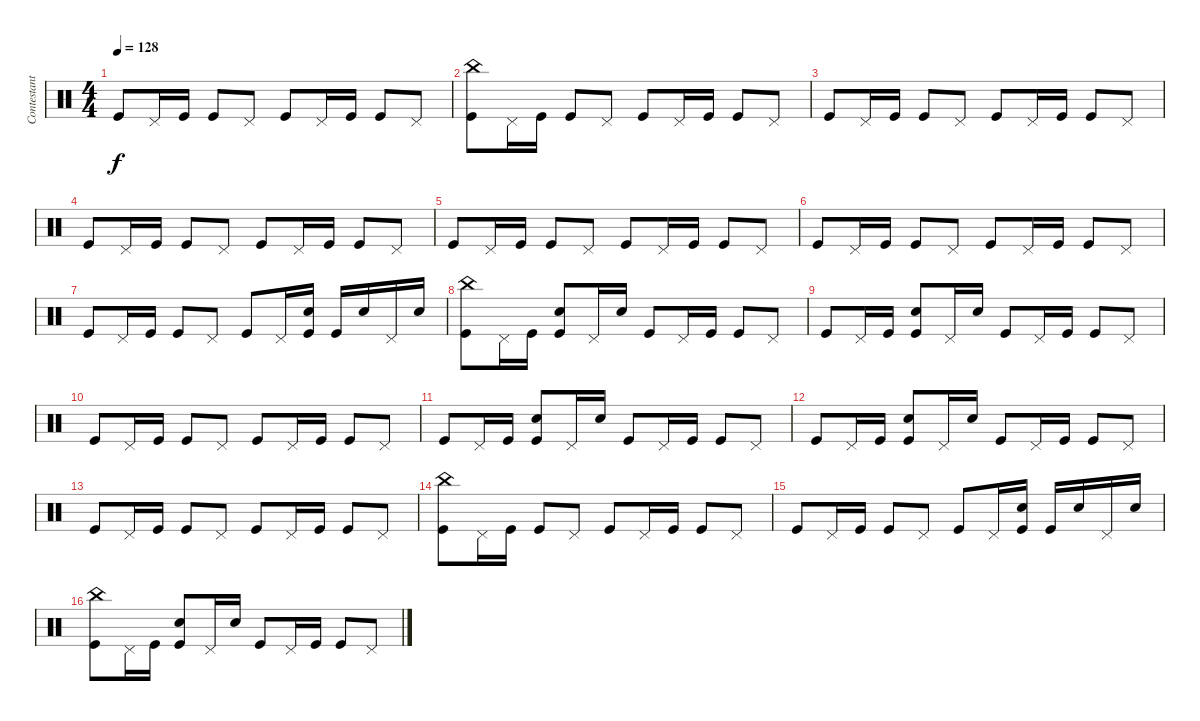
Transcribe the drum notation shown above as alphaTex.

\track ("Contestant #4" "Contestant") {instrument percussion}
\staff {score}
\articulation defaults
\ts (4 4)
\tempo 128
\clef neutral
\ks c "Kick (hit)".8{dy f} "Pedal Hi-Hat (hit)".16 "Kick (hit)".16 "Kick (hit)".8 "Pedal Hi-Hat (hit)".8 "Kick (hit)".8 "Pedal Hi-Hat (hit)".16 "Kick (hit)".16 "Kick (hit)".8 "Pedal Hi-Hat (hit)".8
|
("China (hit)" "Kick (hit)").8 "Pedal Hi-Hat (hit)".16 "Kick (hit)".16 "Kick (hit)".8 "Pedal Hi-Hat (hit)".8 "Kick (hit)".8 "Pedal Hi-Hat (hit)".16 "Kick (hit)".16 "Kick (hit)".8 "Pedal Hi-Hat (hit)".8 |
"Kick (hit)".8 "Pedal Hi-Hat (hit)".16 "Kick (hit)".16 "Kick (hit)".8 "Pedal Hi-Hat (hit)".8 "Kick (hit)".8 "Pedal Hi-Hat (hit)".16 "Kick (hit)".16 "Kick (hit)".8 "Pedal Hi-Hat (hit)".8 |
"Kick (hit)".8 "Pedal Hi-Hat (hit)".16 "Kick (hit)".16 "Kick (hit)".8 "Pedal Hi-Hat (hit)".8 "Kick (hit)".8 "Pedal Hi-Hat (hit)".16 "Kick (hit)".16 "Kick (hit)".8 "Pedal Hi-Hat (hit)".8 |
"Kick (hit)".8 "Pedal Hi-Hat (hit)".16 "Kick (hit)".16 "Kick (hit)".8 "Pedal Hi-Hat (hit)".8 "Kick (hit)".8 "Pedal Hi-Hat (hit)".16 "Kick (hit)".16 "Kick (hit)".8 "Pedal Hi-Hat (hit)".8 |
"Kick (hit)".8 "Pedal Hi-Hat (hit)".16 "Kick (hit)".16 "Kick (hit)".8 "Pedal Hi-Hat (hit)".8 "Kick (hit)".8 "Pedal Hi-Hat (hit)".16 "Kick (hit)".16 "Kick (hit)".8 "Pedal Hi-Hat (hit)".8 |
"Kick (hit)".8 "Pedal Hi-Hat (hit)".16 "Kick (hit)".16 "Kick (hit)".8 "Pedal Hi-Hat (hit)".8 "Kick (hit)".8 "Pedal Hi-Hat (hit)".16 ("Snare (hit) 2" "Kick (hit)").16 "Kick (hit)".16 "Snare (hit) 2".16 "Pedal Hi-Hat (hit)".16 "Snare (hit) 2".16 |
("China (hit)" "Kick (hit)").8 "Pedal Hi-Hat (hit)".16 "Kick (hit)".16 ("Snare (hit) 2" "Kick (hit)").8 "Pedal Hi-Hat (hit)".16 "Snare (hit) 2".16 "Kick (hit)".8 "Pedal Hi-Hat (hit)".16 "Kick (hit)".16 "Kick (hit)".8 "Pedal Hi-Hat (hit)".8 |
"Kick (hit)".8 "Pedal Hi-Hat (hit)".16 "Kick (hit)".16 ("Snare (hit) 2" "Kick (hit)").8 "Pedal Hi-Hat (hit)".16 "Snare (hit) 2".16 "Kick (hit)".8 "Pedal Hi-Hat (hit)".16 "Kick (hit)".16 "Kick (hit)".8 "Pedal Hi-Hat (hit)".8 |
"Kick (hit)".8 "Pedal Hi-Hat (hit)".16 "Kick (hit)".16 "Kick (hit)".8 "Pedal Hi-Hat (hit)".8 "Kick (hit)".8 "Pedal Hi-Hat (hit)".16 "Kick (hit)".16 "Kick (hit)".8 "Pedal Hi-Hat (hit)".8 |
"Kick (hit)".8 "Pedal Hi-Hat (hit)".16 "Kick (hit)".16 ("Snare (hit) 2" "Kick (hit)").8 "Pedal Hi-Hat (hit)".16 "Snare (hit) 2".16 "Kick (hit)".8 "Pedal Hi-Hat (hit)".16 "Kick (hit)".16 "Kick (hit)".8 "Pedal Hi-Hat (hit)".8 |
"Kick (hit)".8 "Pedal Hi-Hat (hit)".16 "Kick (hit)".16 ("Snare (hit) 2" "Kick (hit)").8 "Pedal Hi-Hat (hit)".16 "Snare (hit) 2".16 "Kick (hit)".8 "Pedal Hi-Hat (hit)".16 "Kick (hit)".16 "Kick (hit)".8 "Pedal Hi-Hat (hit)".8 |
"Kick (hit)".8 "Pedal Hi-Hat (hit)".16 "Kick (hit)".16 "Kick (hit)".8 "Pedal Hi-Hat (hit)".8 "Kick (hit)".8 "Pedal Hi-Hat (hit)".16 "Kick (hit)".16 "Kick (hit)".8 "Pedal Hi-Hat (hit)".8 |
("China (hit)" "Kick (hit)").8 "Pedal Hi-Hat (hit)".16 "Kick (hit)".16 "Kick (hit)".8 "Pedal Hi-Hat (hit)".8 "Kick (hit)".8 "Pedal Hi-Hat (hit)".16 "Kick (hit)".16 "Kick (hit)".8 "Pedal Hi-Hat (hit)".8 |
"Kick (hit)".8 "Pedal Hi-Hat (hit)".16 "Kick (hit)".16 "Kick (hit)".8 "Pedal Hi-Hat (hit)".8 "Kick (hit)".8 "Pedal Hi-Hat (hit)".16 ("Snare (hit) 2" "Kick (hit)").16 "Kick (hit)".16 "Snare (hit) 2".16 "Pedal Hi-Hat (hit)".16 "Snare (hit) 2".16 |
("China (hit)" "Kick (hit)").8 "Pedal Hi-Hat (hit)".16 "Kick (hit)".16 ("Snare (hit) 2" "Kick (hit)").8 "Pedal Hi-Hat (hit)".16 "Snare (hit) 2".16 "Kick (hit)".8 "Pedal Hi-Hat (hit)".16 "Kick (hit)".16 "Kick (hit)".8 "Pedal Hi-Hat (hit)".8
